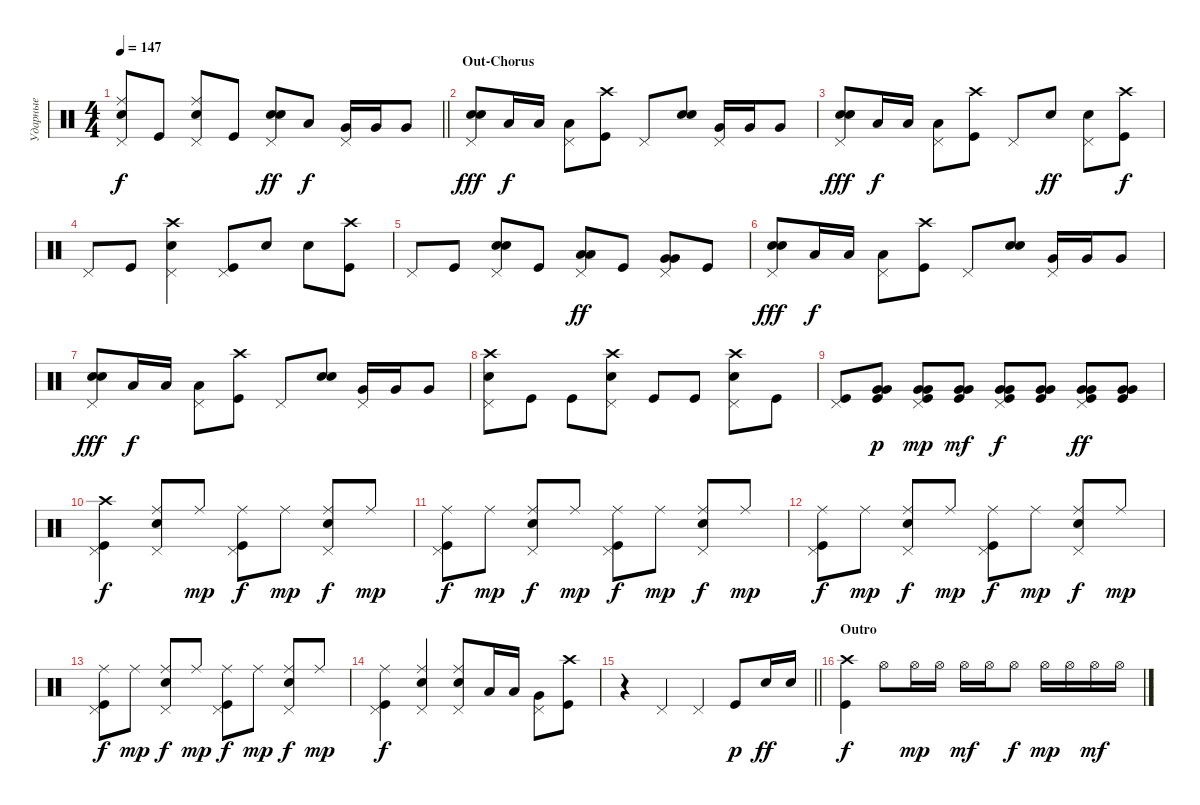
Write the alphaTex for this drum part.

\track ("Ударные" "Ударные") {instrument percussion}
\staff {score}
\articulation defaults
\ts (4 4)
\tempo 147
\clef neutral
\barLineRight lightlight
\ks c
("Snare (hit) 2" "Ride (middle)" "Pedal Hi-Hat (hit)").8{dy f} "Kick (hit)".8 ("Snare (hit) 2" "Ride (middle)" "Pedal Hi-Hat (hit)").8 "Kick (hit)".8 ("Snare (hit) 2" "Snare (hit) 2" "Pedal Hi-Hat (hit)").8{bd 480 dy ff} "Low Tom (hit)".8{dy f} ("Very Low Tom (hit)" "Pedal Hi-Hat (hit)").16 "Very Low Tom (hit)".16 "Very Low Tom (hit)".8 |
\section ("" "Out-Chorus")
("Snare (hit) 2" "Snare (hit) 2" "Pedal Hi-Hat (hit)").8{bd 240 dy fff} "Low Tom (hit)".16{dy f} "Low Tom (hit)".16 ("Low Tom (hit)" "Pedal Hi-Hat (hit)").8 ("Kick (hit)" "Crash high (hit)").8 "Pedal Hi-Hat (hit)".8 ("Snare (hit) 2" "Snare (hit) 2").8{bd 240} ("Very Low Tom (hit)" "Pedal Hi-Hat (hit)").16 "Very Low Tom (hit)".16 "Very Low Tom (hit)".8 |
("Snare (hit) 2" "Snare (hit) 2" "Pedal Hi-Hat (hit)").8{bd 240 dy fff} "Low Tom (hit)".16{dy f} "Low Tom (hit)".16 ("Low Tom (hit)" "Pedal Hi-Hat (hit)").8 ("Kick (hit)" "Crash high (hit)").8 "Pedal Hi-Hat (hit)".8 "Snare (hit) 2".8{bd 240 dy ff} ("Snare (hit) 2" "Pedal Hi-Hat (hit)").8 ("Kick (hit)" "Crash high (hit)").8{dy f} |
"Pedal Hi-Hat (hit)".8 "Kick (hit)".8 ("Snare (hit) 2" "Crash high (hit)" "Pedal Hi-Hat (hit)").4 ("Kick (hit)" "Pedal Hi-Hat (hit)").8 "Snare (hit) 2".8 "Snare (hit) 2".8 ("Kick (hit)" "Crash high (hit)").8 |
"Pedal Hi-Hat (hit)".8 "Kick (hit)".8 ("Snare (hit) 2" "Snare (hit) 2" "Pedal Hi-Hat (hit)").8{bd 240} "Kick (hit)".8 ("Low Tom (hit)" "Low Tom (hit)" "Pedal Hi-Hat (hit)").8{bd 240 dy ff} "Kick (hit)".8 ("Very Low Tom (hit)" "Very Low Tom (hit)" "Pedal Hi-Hat (hit)").8{bd 240} "Kick (hit)".8 |
("Snare (hit) 2" "Snare (hit) 2" "Pedal Hi-Hat (hit)").8{bd 240 dy fff} "Low Tom (hit)".16{dy f} "Low Tom (hit)".16 ("Low Tom (hit)" "Pedal Hi-Hat (hit)").8 ("Kick (hit)" "Crash high (hit)").8 "Pedal Hi-Hat (hit)".8 ("Snare (hit) 2" "Snare (hit) 2").8{bd 240} ("Very Low Tom (hit)" "Pedal Hi-Hat (hit)").16 "Very Low Tom (hit)".16 "Very Low Tom (hit)".8 |
("Snare (hit) 2" "Snare (hit) 2" "Pedal Hi-Hat (hit)").8{bd 240 dy fff} "Low Tom (hit)".16{dy f} "Low Tom (hit)".16 ("Low Tom (hit)" "Pedal Hi-Hat (hit)").8 ("Kick (hit)" "Crash high (hit)").8 "Pedal Hi-Hat (hit)".8 ("Snare (hit) 2" "Snare (hit) 2").8{bd 240} ("Very Low Tom (hit)" "Pedal Hi-Hat (hit)").16 "Very Low Tom (hit)".16 "Very Low Tom (hit)".8 |
("Snare (hit) 2" "Crash high (hit)" "Pedal Hi-Hat (hit)").8 "Kick (hit)".8 "Kick (hit)".8 ("Snare (hit) 2" "Crash high (hit)" "Pedal Hi-Hat (hit)").8 "Kick (hit)".8 "Kick (hit)".8 ("Snare (hit) 2" "Crash high (hit)" "Pedal Hi-Hat (hit)").8 "Kick (hit)".8 |
("Kick (hit)" "Pedal Hi-Hat (hit)").8 ("Kick (hit)" "Very Low Tom (hit)" "Very Low Tom (hit)").8{bd 60 dy p} ("Kick (hit)" "Very Low Tom (hit)" "Pedal Hi-Hat (hit)" "Very Low Tom (hit)").8{bd 60 dy mp} ("Kick (hit)" "Very Low Tom (hit)" "Very Low Tom (hit)").8{bd 240 dy mf} ("Kick (hit)" "Very Low Tom (hit)" "Pedal Hi-Hat (hit)" "Very Low Tom (hit)").8{bd 240 dy f} ("Kick (hit)" "Very Low Tom (hit)" "Very Low Tom (hit)").8{bd 240} ("Kick (hit)" "Very Low Tom (hit)" "Pedal Hi-Hat (hit)" "Very Low Tom (hit)").8{bd 240 dy ff} ("Kick (hit)" "Very Low Tom (hit)" "Very Low Tom (hit)").8{bd 240} |
("Kick (hit)" "Pedal Hi-Hat (hit)" "Crash high (hit)").4{dy f} ("Snare (hit) 2" "Ride (middle)" "Pedal Hi-Hat (hit)").8 "Ride (middle)".8{dy mp} ("Kick (hit)" "Ride (middle)" "Pedal Hi-Hat (hit)").8{dy f} "Ride (middle)".8{dy mp} ("Snare (hit) 2" "Ride (middle)" "Pedal Hi-Hat (hit)").8{dy f} "Ride (middle)".8{dy mp} |
("Kick (hit)" "Ride (middle)" "Pedal Hi-Hat (hit)").8{dy f} "Ride (middle)".8{dy mp} ("Snare (hit) 2" "Ride (middle)" "Pedal Hi-Hat (hit)").8{dy f} "Ride (middle)".8{dy mp} ("Kick (hit)" "Pedal Hi-Hat (hit)" "Ride (middle)").8{dy f} "Ride (middle)".8{dy mp} ("Snare (hit) 2" "Pedal Hi-Hat (hit)" "Ride (middle)").8{dy f} "Ride (middle)".8{dy mp} |
("Kick (hit)" "Ride (middle)" "Pedal Hi-Hat (hit)").8{dy f} "Ride (middle)".8{dy mp} ("Snare (hit) 2" "Ride (middle)" "Pedal Hi-Hat (hit)").8{dy f} "Ride (middle)".8{dy mp} ("Kick (hit)" "Pedal Hi-Hat (hit)" "Ride (middle)").8{dy f} "Ride (middle)".8{dy mp} ("Snare (hit) 2" "Pedal Hi-Hat (hit)" "Ride (middle)").8{dy f} "Ride (middle)".8{dy mp} |
("Kick (hit)" "Ride (middle)" "Pedal Hi-Hat (hit)").8{dy f} "Ride (middle)".8{dy mp} ("Snare (hit) 2" "Ride (middle)" "Pedal Hi-Hat (hit)").8{dy f} "Ride (middle)".8{dy mp} ("Kick (hit)" "Pedal Hi-Hat (hit)" "Ride (middle)").8{dy f} "Ride (middle)".8{dy mp} ("Snare (hit) 2" "Pedal Hi-Hat (hit)" "Ride (middle)").8{dy f} "Ride (middle)".8{dy mp} |
("Kick (hit)" "Ride (middle)" "Pedal Hi-Hat (hit)").4{dy f} ("Snare (hit) 2" "Ride (middle)" "Pedal Hi-Hat (hit)").4 ("Snare (hit) 2" "Ride (middle)" "Pedal Hi-Hat (hit)").8 "Low Tom (hit)".16 "Low Tom (hit)".16 ("Very Low Tom (hit)" "Pedal Hi-Hat (hit)").8 ("Kick (hit)" "Crash high (hit)").8 |
\barLineRight lightlight
r.4 "Pedal Hi-Hat (hit)".4 "Pedal Hi-Hat (hit)".4 "Kick (hit)".8{dy p} "Snare (hit) 2".16{dy ff} "Snare (hit) 2".16 |
\section ("" "Outro")
("Kick (hit)" "Crash high (hit)").4{dy f} "Hi-Hat (open)".8 "Hi-Hat (open)".16{dy mp} "Hi-Hat (open)".16 "Hi-Hat (open)".16{dy mf} "Hi-Hat (open)".16 "Hi-Hat (open)".8{dy f} "Hi-Hat (open)".16{dy mp} "Hi-Hat (open)".16 "Hi-Hat (open)".16{dy mf} "Hi-Hat (open)".16
